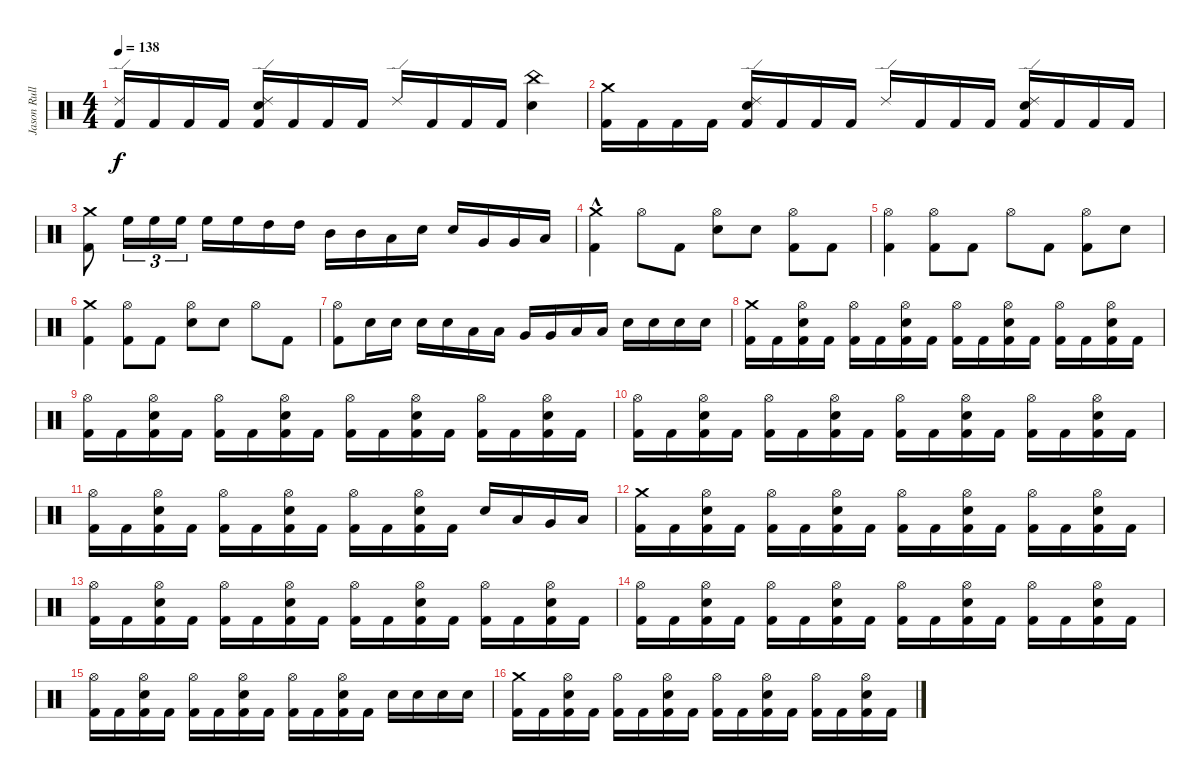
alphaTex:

\track ("Jason Rullo" "Jason Rull") {instrument percussion}
\staff {score}
\articulation defaults
\ts (4 4)
\tempo 138
\clef neutral
\ks c
("Kick (hit) 2" "Ride (edge) 2").16{dy f} "Kick (hit) 2".16 "Kick (hit) 2".16 "Kick (hit) 2".16 ("Electric Snare (hit)" "Kick (hit) 2" "Ride (edge) 2").16 "Kick (hit) 2".16 "Kick (hit) 2".16 "Kick (hit) 2".16 "Ride (edge) 2".16 "Kick (hit) 2".16 "Kick (hit) 2".16 "Kick (hit) 2".16 ("China (hit)" "Electric Snare (hit)").4 |
("Kick (hit) 2" "Crash medium (hit)").16 "Kick (hit) 2".16 "Kick (hit) 2".16 "Kick (hit) 2".16 ("Electric Snare (hit)" "Kick (hit) 2" "Ride (edge) 2").16 "Kick (hit) 2".16 "Kick (hit) 2".16 "Kick (hit) 2".16 "Ride (edge) 2".16 "Kick (hit) 2".16 "Kick (hit) 2".16 "Kick (hit) 2".16 ("Electric Snare (hit)" "Kick (hit) 2" "Ride (edge) 2").16 "Kick (hit) 2".16 "Kick (hit) 2".16 "Kick (hit) 2".16 |
("Crash medium (hit)" "Kick (hit) 2").8 "High Floor Tom (hit)".16{tu (3 2)} "High Floor Tom (hit)".16{tu (3 2)} "High Floor Tom (hit)".16{tu (3 2)} "High Floor Tom (hit)".16 "High Floor Tom (hit)".16 "High Tom (hit)".16 "High Tom (hit)".16 "Mid Tom (hit)".16 "Mid Tom (hit)".16 "Low Tom (hit)".16 "Electric Snare (hit)".16 "Electric Snare (hit)".16 "Very Low Tom (hit)".16 "Very Low Tom (hit)".16 "Low Floor Tom (hit)".16 |
("Crash medium (hit)" "Kick (hit) 2"{hac}).4 "Hi-Hat (open)".8 "Kick (hit) 2".8 ("Hi-Hat (open)" "Electric Snare (hit)").8 "Electric Snare (hit)".8 ("Kick (hit) 2" "Hi-Hat (open)").8 "Kick (hit) 2".8 |
("Hi-Hat (open)" "Kick (hit) 2").4 ("Hi-Hat (open)" "Kick (hit) 2").8 "Kick (hit) 2".8 "Hi-Hat (open)".8 "Kick (hit) 2".8 ("Hi-Hat (open)" "Kick (hit) 2").8 "Electric Snare (hit)".8 |
("Crash medium (hit)" "Kick (hit) 2").4 ("Hi-Hat (open)" "Kick (hit) 2").8 "Kick (hit) 2".8 ("Hi-Hat (open)" "Electric Snare (hit)").8 "Electric Snare (hit)".8 "Hi-Hat (open)".8 "Kick (hit) 2".8 |
("Hi-Hat (open)" "Kick (hit) 2").8 "Electric Snare (hit)".16 "Electric Snare (hit)".16 "Electric Snare (hit)".16 "Electric Snare (hit)".16 "Low Tom (hit)".16 "Low Tom (hit)".16 "Very Low Tom (hit)".16 "Very Low Tom (hit)".16 "Low Floor Tom (hit)".16 "Low Floor Tom (hit)".16 "Electric Snare (hit)".16 "Electric Snare (hit)".16 "Electric Snare (hit)".16 "Electric Snare (hit)".16 |
("Crash medium (hit)" "Kick (hit) 2").16 "Kick (hit) 2".16 ("Hi-Hat (open)" "Electric Snare (hit)" "Kick (hit) 2").16 "Kick (hit) 2".16 ("Hi-Hat (open)" "Kick (hit) 2").16 "Kick (hit) 2".16 ("Hi-Hat (open)" "Electric Snare (hit)" "Kick (hit) 2").16 "Kick (hit) 2".16 ("Hi-Hat (open)" "Kick (hit) 2").16 "Kick (hit) 2".16 ("Hi-Hat (open)" "Electric Snare (hit)" "Kick (hit) 2").16 "Kick (hit) 2".16 ("Hi-Hat (open)" "Kick (hit) 2").16 "Kick (hit) 2".16 ("Hi-Hat (open)" "Electric Snare (hit)" "Kick (hit) 2").16 "Kick (hit) 2".16 |
("Hi-Hat (open)" "Kick (hit) 2").16 "Kick (hit) 2".16 ("Hi-Hat (open)" "Electric Snare (hit)" "Kick (hit) 2").16 "Kick (hit) 2".16 ("Hi-Hat (open)" "Kick (hit) 2").16 "Kick (hit) 2".16 ("Hi-Hat (open)" "Electric Snare (hit)" "Kick (hit) 2").16 "Kick (hit) 2".16 ("Hi-Hat (open)" "Kick (hit) 2").16 "Kick (hit) 2".16 ("Hi-Hat (open)" "Electric Snare (hit)" "Kick (hit) 2").16 "Kick (hit) 2".16 ("Hi-Hat (open)" "Kick (hit) 2").16 "Kick (hit) 2".16 ("Hi-Hat (open)" "Electric Snare (hit)" "Kick (hit) 2").16 "Kick (hit) 2".16 |
("Hi-Hat (open)" "Kick (hit) 2").16 "Kick (hit) 2".16 ("Hi-Hat (open)" "Electric Snare (hit)" "Kick (hit) 2").16 "Kick (hit) 2".16 ("Hi-Hat (open)" "Kick (hit) 2").16 "Kick (hit) 2".16 ("Hi-Hat (open)" "Electric Snare (hit)" "Kick (hit) 2").16 "Kick (hit) 2".16 ("Hi-Hat (open)" "Kick (hit) 2").16 "Kick (hit) 2".16 ("Hi-Hat (open)" "Electric Snare (hit)" "Kick (hit) 2").16 "Kick (hit) 2".16 ("Hi-Hat (open)" "Kick (hit) 2").16 "Kick (hit) 2".16 ("Hi-Hat (open)" "Electric Snare (hit)" "Kick (hit) 2").16 "Kick (hit) 2".16 |
("Hi-Hat (open)" "Kick (hit) 2").16 "Kick (hit) 2".16 ("Hi-Hat (open)" "Electric Snare (hit)" "Kick (hit) 2").16 "Kick (hit) 2".16 ("Hi-Hat (open)" "Kick (hit) 2").16 "Kick (hit) 2".16 ("Hi-Hat (open)" "Electric Snare (hit)" "Kick (hit) 2").16 "Kick (hit) 2".16 ("Hi-Hat (open)" "Kick (hit) 2").16 "Kick (hit) 2".16 ("Hi-Hat (open)" "Electric Snare (hit)" "Kick (hit) 2").16 "Kick (hit) 2".16 "Electric Snare (hit)".16 "Low Tom (hit)".16 "Very Low Tom (hit)".16 "Low Floor Tom (hit)".16 |
("Crash medium (hit)" "Kick (hit) 2").16 "Kick (hit) 2".16 ("Hi-Hat (open)" "Electric Snare (hit)" "Kick (hit) 2").16 "Kick (hit) 2".16 ("Hi-Hat (open)" "Kick (hit) 2").16 "Kick (hit) 2".16 ("Hi-Hat (open)" "Electric Snare (hit)" "Kick (hit) 2").16 "Kick (hit) 2".16 ("Hi-Hat (open)" "Kick (hit) 2").16 "Kick (hit) 2".16 ("Hi-Hat (open)" "Electric Snare (hit)" "Kick (hit) 2").16 "Kick (hit) 2".16 ("Hi-Hat (open)" "Kick (hit) 2").16 "Kick (hit) 2".16 ("Hi-Hat (open)" "Electric Snare (hit)" "Kick (hit) 2").16 "Kick (hit) 2".16 |
("Hi-Hat (open)" "Kick (hit) 2").16 "Kick (hit) 2".16 ("Hi-Hat (open)" "Electric Snare (hit)" "Kick (hit) 2").16 "Kick (hit) 2".16 ("Hi-Hat (open)" "Kick (hit) 2").16 "Kick (hit) 2".16 ("Hi-Hat (open)" "Electric Snare (hit)" "Kick (hit) 2").16 "Kick (hit) 2".16 ("Hi-Hat (open)" "Kick (hit) 2").16 "Kick (hit) 2".16 ("Hi-Hat (open)" "Electric Snare (hit)" "Kick (hit) 2").16 "Kick (hit) 2".16 ("Hi-Hat (open)" "Kick (hit) 2").16 "Kick (hit) 2".16 ("Hi-Hat (open)" "Electric Snare (hit)" "Kick (hit) 2").16 "Kick (hit) 2".16 |
("Hi-Hat (open)" "Kick (hit) 2").16 "Kick (hit) 2".16 ("Hi-Hat (open)" "Electric Snare (hit)" "Kick (hit) 2").16 "Kick (hit) 2".16 ("Hi-Hat (open)" "Kick (hit) 2").16 "Kick (hit) 2".16 ("Hi-Hat (open)" "Electric Snare (hit)" "Kick (hit) 2").16 "Kick (hit) 2".16 ("Hi-Hat (open)" "Kick (hit) 2").16 "Kick (hit) 2".16 ("Hi-Hat (open)" "Electric Snare (hit)" "Kick (hit) 2").16 "Kick (hit) 2".16 ("Hi-Hat (open)" "Kick (hit) 2").16 "Kick (hit) 2".16 ("Hi-Hat (open)" "Electric Snare (hit)" "Kick (hit) 2").16 "Kick (hit) 2".16 |
("Hi-Hat (open)" "Kick (hit) 2").16 "Kick (hit) 2".16 ("Hi-Hat (open)" "Electric Snare (hit)" "Kick (hit) 2").16 "Kick (hit) 2".16 ("Hi-Hat (open)" "Kick (hit) 2").16 "Kick (hit) 2".16 ("Hi-Hat (open)" "Electric Snare (hit)" "Kick (hit) 2").16 "Kick (hit) 2".16 ("Hi-Hat (open)" "Kick (hit) 2").16 "Kick (hit) 2".16 ("Hi-Hat (open)" "Electric Snare (hit)" "Kick (hit) 2").16 "Kick (hit) 2".16 "Electric Snare (hit)".16 "Electric Snare (hit)".16 "Electric Snare (hit)".16 "Electric Snare (hit)".16 |
("Crash medium (hit)" "Kick (hit) 2").16 "Kick (hit) 2".16 ("Hi-Hat (open)" "Electric Snare (hit)" "Kick (hit) 2").16 "Kick (hit) 2".16 ("Hi-Hat (open)" "Kick (hit) 2").16 "Kick (hit) 2".16 ("Hi-Hat (open)" "Electric Snare (hit)" "Kick (hit) 2").16 "Kick (hit) 2".16 ("Hi-Hat (open)" "Kick (hit) 2").16 "Kick (hit) 2".16 ("Hi-Hat (open)" "Electric Snare (hit)" "Kick (hit) 2").16 "Kick (hit) 2".16 ("Hi-Hat (open)" "Kick (hit) 2").16 "Kick (hit) 2".16 ("Hi-Hat (open)" "Electric Snare (hit)" "Kick (hit) 2").16 "Kick (hit) 2".16
